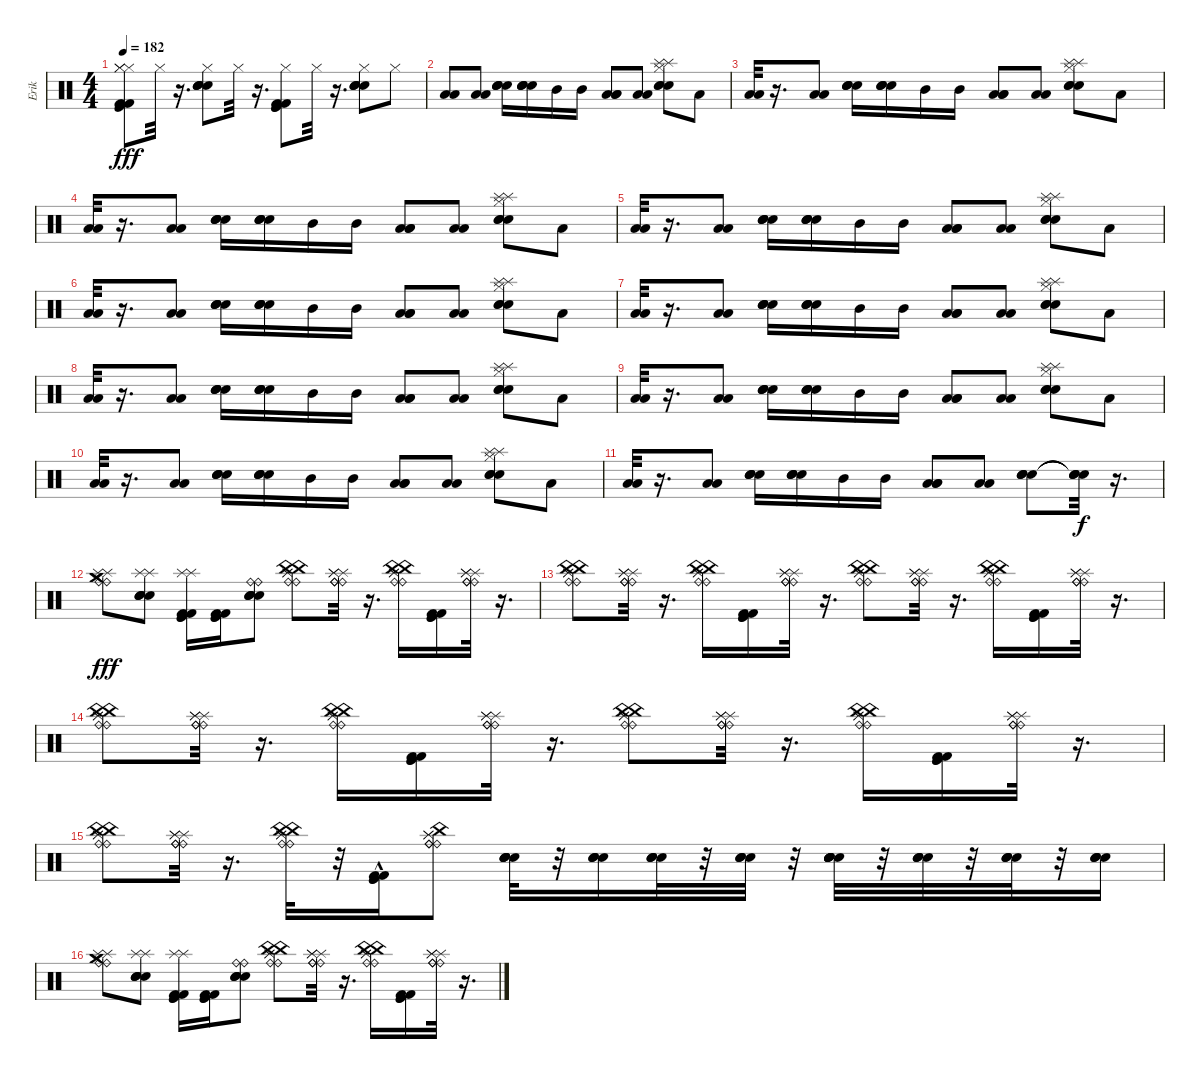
\track ("Erik" "Erik") {instrument percussion}
\staff {score}
\articulation defaults
\ts (4 4)
\tempo 182
\clef neutral
\ks c
("Hi-Hat (closed)" "Hi-Hat (closed)" "Hi-Hat (closed)" "Kick (hit) 2" "Kick (hit) 2" "Kick (hit)").8{dy fff} "Hi-Hat (closed)".32 r.16{d} ("Hi-Hat (closed)" "Electric Snare (hit)" "Electric Snare (hit)" "Snare (hit) 2" "Snare (hit) 2").8 "Hi-Hat (closed)".32 r.16{d} ("Hi-Hat (closed)" "Kick (hit) 2" "Kick (hit) 2" "Kick (hit)" "Kick (hit)").8 "Hi-Hat (closed)".32 r.16{d} ("Hi-Hat (closed)" "Electric Snare (hit)" "Electric Snare (hit)" "Snare (hit) 2" "Snare (hit) 2").8 "Hi-Hat (closed)".8 |
("Low Tom (hit)" "Low Tom (hit)").8 ("Low Tom (hit)" "Low Tom (hit)").8 ("Electric Snare (hit)" "Electric Snare (hit)" "Snare (hit) 2" "Snare (hit) 2").16 ("Electric Snare (hit)" "Electric Snare (hit)" "Snare (hit) 2" "Snare (hit) 2").16 "Mid Tom (hit)".16 "Mid Tom (hit)".16 ("Low Tom (hit)" "Low Tom (hit)" "Low Tom (hit)").8 ("Low Tom (hit)" "Low Tom (hit)").8 ("Splash (hit)" "Splash (hit)" "Hi-Hat (closed)" "Electric Snare (hit)" "Electric Snare (hit)" "Snare (hit) 2").8 "Low Tom (hit)".8 |
("Low Tom (hit)" "Low Tom (hit)").32 r.16{d} ("Low Tom (hit)" "Low Tom (hit)").8 ("Electric Snare (hit)" "Electric Snare (hit)" "Snare (hit) 2" "Snare (hit) 2").16 ("Electric Snare (hit)" "Electric Snare (hit)" "Snare (hit) 2" "Snare (hit) 2").16 "Mid Tom (hit)".16 "Mid Tom (hit)".16 ("Low Tom (hit)" "Low Tom (hit)" "Low Tom (hit)").8 ("Low Tom (hit)" "Low Tom (hit)").8 ("Splash (hit)" "Splash (hit)" "Hi-Hat (closed)" "Electric Snare (hit)" "Electric Snare (hit)" "Snare (hit) 2").8 "Low Tom (hit)".8 |
("Low Tom (hit)" "Low Tom (hit)").32 r.16{d} ("Low Tom (hit)" "Low Tom (hit)").8 ("Electric Snare (hit)" "Electric Snare (hit)" "Snare (hit) 2" "Snare (hit) 2").16 ("Electric Snare (hit)" "Electric Snare (hit)" "Snare (hit) 2" "Snare (hit) 2").16 "Mid Tom (hit)".16 "Mid Tom (hit)".16 ("Low Tom (hit)" "Low Tom (hit)" "Low Tom (hit)").8 ("Low Tom (hit)" "Low Tom (hit)").8 ("Splash (hit)" "Splash (hit)" "Hi-Hat (closed)" "Electric Snare (hit)" "Electric Snare (hit)" "Snare (hit) 2").8 "Low Tom (hit)".8 |
("Low Tom (hit)" "Low Tom (hit)").32 r.16{d} ("Low Tom (hit)" "Low Tom (hit)").8 ("Electric Snare (hit)" "Electric Snare (hit)" "Snare (hit) 2" "Snare (hit) 2").16 ("Electric Snare (hit)" "Electric Snare (hit)" "Snare (hit) 2" "Snare (hit) 2").16 "Mid Tom (hit)".16 "Mid Tom (hit)".16 ("Low Tom (hit)" "Low Tom (hit)" "Low Tom (hit)").8 ("Low Tom (hit)" "Low Tom (hit)").8 ("Splash (hit)" "Splash (hit)" "Hi-Hat (closed)" "Electric Snare (hit)" "Electric Snare (hit)" "Snare (hit) 2").8 "Low Tom (hit)".8 |
("Low Tom (hit)" "Low Tom (hit)").32 r.16{d} ("Low Tom (hit)" "Low Tom (hit)").8 ("Electric Snare (hit)" "Electric Snare (hit)" "Snare (hit) 2" "Snare (hit) 2").16 ("Electric Snare (hit)" "Electric Snare (hit)" "Snare (hit) 2" "Snare (hit) 2").16 "Mid Tom (hit)".16 "Mid Tom (hit)".16 ("Low Tom (hit)" "Low Tom (hit)" "Low Tom (hit)").8 ("Low Tom (hit)" "Low Tom (hit)").8 ("Splash (hit)" "Splash (hit)" "Hi-Hat (closed)" "Electric Snare (hit)" "Electric Snare (hit)" "Snare (hit) 2").8 "Low Tom (hit)".8 |
("Low Tom (hit)" "Low Tom (hit)").32 r.16{d} ("Low Tom (hit)" "Low Tom (hit)").8 ("Electric Snare (hit)" "Electric Snare (hit)" "Snare (hit) 2" "Snare (hit) 2").16 ("Electric Snare (hit)" "Electric Snare (hit)" "Snare (hit) 2" "Snare (hit) 2").16 "Mid Tom (hit)".16 "Mid Tom (hit)".16 ("Low Tom (hit)" "Low Tom (hit)" "Low Tom (hit)").8 ("Low Tom (hit)" "Low Tom (hit)").8 ("Splash (hit)" "Splash (hit)" "Hi-Hat (closed)" "Electric Snare (hit)" "Electric Snare (hit)" "Snare (hit) 2").8 "Low Tom (hit)".8 |
("Low Tom (hit)" "Low Tom (hit)").32 r.16{d} ("Low Tom (hit)" "Low Tom (hit)").8 ("Electric Snare (hit)" "Electric Snare (hit)" "Snare (hit) 2" "Snare (hit) 2").16 ("Electric Snare (hit)" "Electric Snare (hit)" "Snare (hit) 2" "Snare (hit) 2").16 "Mid Tom (hit)".16 "Mid Tom (hit)".16 ("Low Tom (hit)" "Low Tom (hit)" "Low Tom (hit)").8 ("Low Tom (hit)" "Low Tom (hit)").8 ("Splash (hit)" "Splash (hit)" "Hi-Hat (closed)" "Electric Snare (hit)" "Electric Snare (hit)" "Snare (hit) 2").8 "Low Tom (hit)".8 |
("Low Tom (hit)" "Low Tom (hit)").32 r.16{d} ("Low Tom (hit)" "Low Tom (hit)").8 ("Electric Snare (hit)" "Electric Snare (hit)" "Snare (hit) 2" "Snare (hit) 2").16 ("Electric Snare (hit)" "Electric Snare (hit)" "Snare (hit) 2" "Snare (hit) 2").16 "Mid Tom (hit)".16 "Mid Tom (hit)".16 ("Low Tom (hit)" "Low Tom (hit)" "Low Tom (hit)").8 ("Low Tom (hit)" "Low Tom (hit)").8 ("Splash (hit)" "Splash (hit)" "Hi-Hat (closed)" "Electric Snare (hit)" "Electric Snare (hit)" "Snare (hit) 2").8 "Low Tom (hit)".8 |
("Low Tom (hit)" "Low Tom (hit)").32 r.16{d} ("Low Tom (hit)" "Low Tom (hit)").8 ("Electric Snare (hit)" "Electric Snare (hit)" "Snare (hit) 2" "Snare (hit) 2").16 ("Electric Snare (hit)" "Electric Snare (hit)" "Snare (hit) 2" "Snare (hit) 2").16 "Mid Tom (hit)".16 "Mid Tom (hit)".16 ("Low Tom (hit)" "Low Tom (hit)" "Low Tom (hit)").8 ("Low Tom (hit)" "Low Tom (hit)").8 ("Splash (hit)" "Splash (hit)" "Hi-Hat (closed)" "Electric Snare (hit)" "Electric Snare (hit)" "Snare (hit) 2").8 "Low Tom (hit)".8 |
("Low Tom (hit)" "Low Tom (hit)").32 r.16{d} ("Low Tom (hit)" "Low Tom (hit)").8 ("Electric Snare (hit)" "Electric Snare (hit)" "Snare (hit) 2" "Snare (hit) 2").16 ("Electric Snare (hit)" "Electric Snare (hit)" "Snare (hit) 2" "Snare (hit) 2").16 "Mid Tom (hit)".16 "Mid Tom (hit)".16 ("Low Tom (hit)" "Low Tom (hit)" "Low Tom (hit)").8 ("Low Tom (hit)" "Low Tom (hit)").8 ("Electric Snare (hit)" "Electric Snare (hit)" "Snare (hit) 2" "Snare (hit) 2").8 ("Snare (hit)"{t} "Snare (hit)"{t} "Snare (hit)"{t} "Snare (hit)"{t}).32{dy f} r.16{d} |
("Crash medium (hit)" "Crash medium (hit)" "Splash (hit)" "Splash (hit)" "Ride (bell)" "Ride (bell)").8{dy fff} ("Electric Snare (hit)" "Electric Snare (hit)" "Snare (hit) 2" "Snare (hit) 2" "Splash (hit)" "Splash (hit)").8 ("Kick (hit) 2" "Kick (hit) 2" "Kick (hit)" "Kick (hit)" "Splash (hit)" "Splash (hit)").16 ("Kick (hit) 2" "Kick (hit) 2" "Kick (hit)" "Kick (hit)").16 ("Electric Snare (hit)" "Electric Snare (hit)" "Snare (hit) 2" "Snare (hit) 2" "Ride (bell)" "Ride (bell)").8 ("Splash (hit)" "Splash (hit)" "Ride (bell)" "Ride (bell)" "China (hit)" "China (hit)").8 ("Ride (bell)" "Ride (bell)" "Ride (bell)" "Splash (hit)" "Splash (hit)" "Splash (hit)").32 r.16{d} ("Splash (hit)" "Splash (hit)" "Ride (bell)" "Ride (bell)" "China (hit)" "China (hit)").16 ("Kick (hit) 2" "Kick (hit) 2" "Kick (hit)" "Kick (hit)").16 ("Ride (bell)" "Ride (bell)" "Ride (bell)" "Splash (hit)" "Splash (hit)" "Splash (hit)").32 r.16{d} |
("Splash (hit)" "Splash (hit)" "Ride (bell)" "Ride (bell)" "China (hit)" "China (hit)").8 ("Ride (bell)" "Ride (bell)" "Ride (bell)" "Splash (hit)" "Splash (hit)" "Splash (hit)").32 r.16{d} ("Splash (hit)" "Splash (hit)" "Ride (bell)" "Ride (bell)" "China (hit)" "China (hit)").16 ("Kick (hit) 2" "Kick (hit) 2" "Kick (hit)" "Kick (hit)").16 ("Ride (bell)" "Ride (bell)" "Ride (bell)" "Splash (hit)" "Splash (hit)" "Splash (hit)").32 r.16{d} ("Splash (hit)" "Splash (hit)" "Ride (bell)" "Ride (bell)" "China (hit)" "China (hit)").8 ("Ride (bell)" "Ride (bell)" "Ride (bell)" "Splash (hit)" "Splash (hit)" "Splash (hit)").32 r.16{d} ("Splash (hit)" "Splash (hit)" "Ride (bell)" "Ride (bell)" "China (hit)" "China (hit)").16 ("Kick (hit) 2" "Kick (hit) 2" "Kick (hit)" "Kick (hit)").16 ("Ride (bell)" "Ride (bell)" "Ride (bell)" "Splash (hit)" "Splash (hit)" "Splash (hit)").32 r.16{d} |
("Splash (hit)" "Splash (hit)" "Ride (bell)" "Ride (bell)" "China (hit)" "China (hit)").8 ("Ride (bell)" "Ride (bell)" "Ride (bell)" "Splash (hit)" "Splash (hit)" "Splash (hit)").32 r.16{d} ("Splash (hit)" "Splash (hit)" "Ride (bell)" "Ride (bell)" "China (hit)" "China (hit)").16 ("Kick (hit) 2" "Kick (hit) 2" "Kick (hit)" "Kick (hit)").16 ("Ride (bell)" "Ride (bell)" "Ride (bell)" "Splash (hit)" "Splash (hit)" "Splash (hit)").32 r.16{d} ("Splash (hit)" "Splash (hit)" "Ride (bell)" "Ride (bell)" "China (hit)" "China (hit)").8 ("Ride (bell)" "Ride (bell)" "Ride (bell)" "Splash (hit)" "Splash (hit)" "Splash (hit)").32 r.16{d} ("Splash (hit)" "Splash (hit)" "Ride (bell)" "Ride (bell)" "China (hit)" "China (hit)").16 ("Kick (hit) 2" "Kick (hit) 2" "Kick (hit)" "Kick (hit)").16 ("Ride (bell)" "Ride (bell)" "Ride (bell)" "Splash (hit)" "Splash (hit)" "Splash (hit)").32 r.16{d} |
("Splash (hit)" "Splash (hit)" "Ride (bell)" "Ride (bell)" "China (hit)" "China (hit)").8 ("Ride (bell)" "Ride (bell)" "Ride (bell)" "Splash (hit)" "Splash (hit)" "Splash (hit)").32 r.16{d} ("Splash (hit)" "Splash (hit)" "Ride (bell)" "Ride (bell)" "China (hit)" "China (hit)").32 r.32 ("Kick (hit) 2"{hac} "Kick (hit) 2"{hac} "Kick (hit)"{hac} "Kick (hit)"{hac}).16 ("Ride (bell)" "Ride (bell)" "Ride (bell)" "Splash (hit)" "Splash (hit)" "China (hit)").8 ("Snare (hit) 2" "Electric Snare (hit)" "Electric Snare (hit)" "Snare (hit) 2" "Electric Snare (hit)").32 r.32 ("Electric Snare (hit)" "Electric Snare (hit)" "Snare (hit) 2" "Snare (hit) 2").16 ("Electric Snare (hit)" "Electric Snare (hit)" "Snare (hit) 2" "Snare (hit) 2").32 r.32 ("Electric Snare (hit)" "Electric Snare (hit)" "Snare (hit) 2" "Snare (hit) 2").32 r.32 ("Electric Snare (hit)" "Electric Snare (hit)" "Snare (hit) 2" "Electric Snare (hit)" "Electric Snare (hit)" "Snare (hit) 2").32 r.32 ("Electric Snare (hit)" "Electric Snare (hit)" "Snare (hit) 2" "Snare (hit) 2").32 r.32 ("Electric Snare (hit)" "Electric Snare (hit)" "Snare (hit) 2" "Snare (hit) 2").32 r.32 ("Electric Snare (hit)" "Electric Snare (hit)" "Snare (hit) 2" "Snare (hit) 2").16 |
("Crash medium (hit)" "Crash medium (hit)" "Splash (hit)" "Splash (hit)" "Ride (bell)" "Ride (bell)").8 ("Electric Snare (hit)" "Electric Snare (hit)" "Snare (hit) 2" "Snare (hit) 2" "Splash (hit)" "Splash (hit)").8 ("Kick (hit) 2" "Kick (hit) 2" "Kick (hit)" "Kick (hit)" "Splash (hit)" "Splash (hit)").16 ("Kick (hit) 2" "Kick (hit) 2" "Kick (hit)" "Kick (hit)").16 ("Electric Snare (hit)" "Electric Snare (hit)" "Snare (hit) 2" "Snare (hit) 2" "Ride (bell)" "Ride (bell)").8 ("Splash (hit)" "Splash (hit)" "Ride (bell)" "Ride (bell)" "China (hit)" "China (hit)").8 ("Ride (bell)" "Ride (bell)" "Ride (bell)" "Splash (hit)" "Splash (hit)" "Splash (hit)").32 r.16{d} ("Splash (hit)" "Splash (hit)" "Ride (bell)" "Ride (bell)" "China (hit)" "China (hit)").16 ("Kick (hit) 2" "Kick (hit) 2" "Kick (hit)" "Kick (hit)").16 ("Ride (bell)" "Ride (bell)" "Ride (bell)" "Splash (hit)" "Splash (hit)" "Splash (hit)").32 r.16{d}
